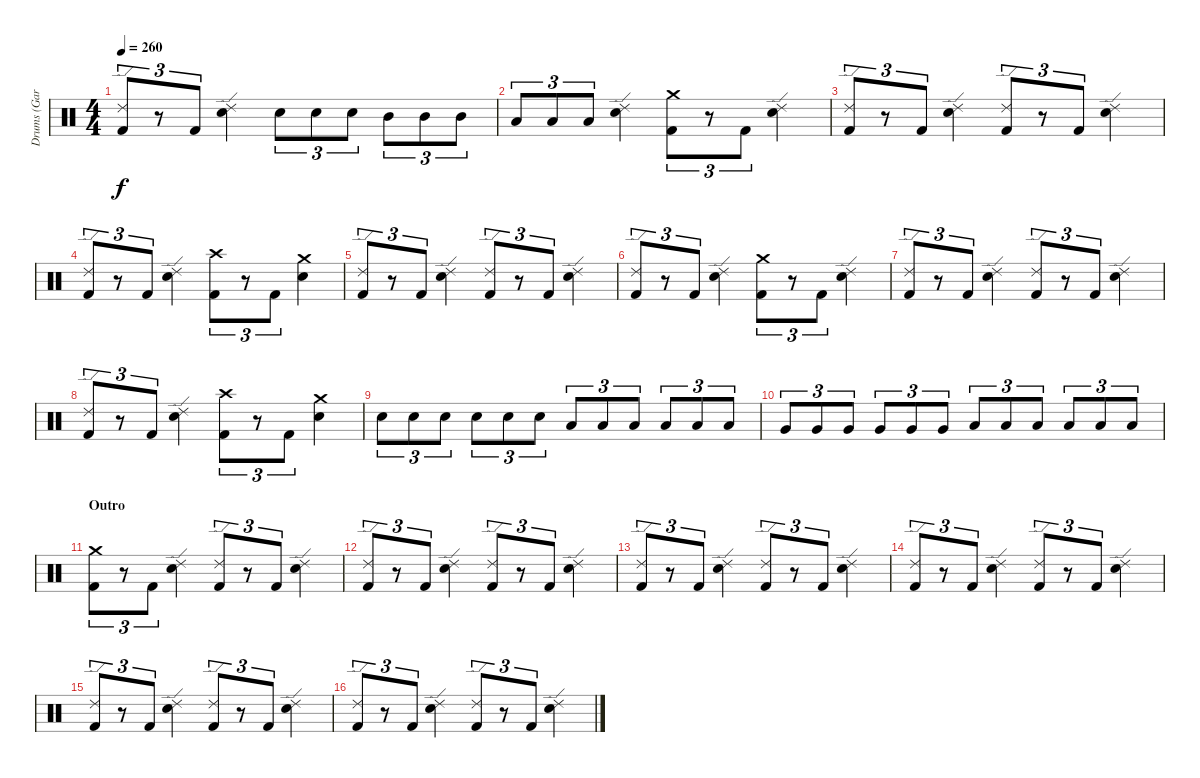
\track ("Drums (Gar Samuelson)" "Drums (Gar") {instrument percussion}
\staff {score}
\articulation defaults
\ts (4 4)
\tempo 260
\clef neutral
\ks c
("Ride (edge) 2" "Kick (hit) 2").8{tu (3 2) dy f} r.8{tu (3 2)} "Kick (hit) 2".8{tu (3 2)} ("Ride (edge) 2" "Snare (hit) 2").4 "Snare (hit) 2".8{tu (3 2)} "Snare (hit) 2".8{tu (3 2)} "Snare (hit) 2".8{tu (3 2)} "Mid Tom (hit)".8{tu (3 2)} "Mid Tom (hit)".8{tu (3 2)} "Mid Tom (hit)".8{tu (3 2)} |
"Low Tom (hit)".8{tu (3 2)} "Low Tom (hit)".8{tu (3 2)} "Low Tom (hit)".8{tu (3 2)} ("Ride (edge) 2" "Snare (hit) 2").4 ("Crash medium (hit)" "Kick (hit) 2").8{tu (3 2)} r.8{tu (3 2)} "Kick (hit) 2".8{tu (3 2)} ("Ride (edge) 2" "Snare (hit) 2").4 |
("Ride (edge) 2" "Kick (hit) 2").8{tu (3 2)} r.8{tu (3 2)} "Kick (hit) 2".8{tu (3 2)} ("Ride (edge) 2" "Snare (hit) 2").4 ("Ride (edge) 2" "Kick (hit) 2").8{tu (3 2)} r.8{tu (3 2)} "Kick (hit) 2".8{tu (3 2)} ("Ride (edge) 2" "Snare (hit) 2").4 |
("Ride (edge) 2" "Kick (hit) 2").8{tu (3 2)} r.8{tu (3 2)} "Kick (hit) 2".8{tu (3 2)} ("Ride (edge) 2" "Snare (hit) 2").4 ("Crash high (hit)" "Kick (hit) 2").8{tu (3 2)} r.8{tu (3 2)} "Kick (hit) 2".8{tu (3 2)} ("Crash medium (hit)" "Snare (hit) 2").4 |
("Ride (edge) 2" "Kick (hit) 2").8{tu (3 2)} r.8{tu (3 2)} "Kick (hit) 2".8{tu (3 2)} ("Ride (edge) 2" "Snare (hit) 2").4 ("Ride (edge) 2" "Kick (hit) 2").8{tu (3 2)} r.8{tu (3 2)} "Kick (hit) 2".8{tu (3 2)} ("Ride (edge) 2" "Snare (hit) 2").4 |
("Ride (edge) 2" "Kick (hit) 2").8{tu (3 2)} r.8{tu (3 2)} "Kick (hit) 2".8{tu (3 2)} ("Ride (edge) 2" "Snare (hit) 2").4 ("Crash medium (hit)" "Kick (hit) 2").8{tu (3 2)} r.8{tu (3 2)} "Kick (hit) 2".8{tu (3 2)} ("Ride (edge) 2" "Snare (hit) 2").4 |
("Ride (edge) 2" "Kick (hit) 2").8{tu (3 2)} r.8{tu (3 2)} "Kick (hit) 2".8{tu (3 2)} ("Ride (edge) 2" "Snare (hit) 2").4 ("Ride (edge) 2" "Kick (hit) 2").8{tu (3 2)} r.8{tu (3 2)} "Kick (hit) 2".8{tu (3 2)} ("Ride (edge) 2" "Snare (hit) 2").4 |
("Ride (edge) 2" "Kick (hit) 2").8{tu (3 2)} r.8{tu (3 2)} "Kick (hit) 2".8{tu (3 2)} ("Ride (edge) 2" "Snare (hit) 2").4 ("Crash high (hit)" "Kick (hit) 2").8{tu (3 2)} r.8{tu (3 2)} "Kick (hit) 2".8{tu (3 2)} ("Crash medium (hit)" "Snare (hit) 2").4 |
"Snare (hit) 2".8{tu (3 2)} "Snare (hit) 2".8{tu (3 2)} "Snare (hit) 2".8{tu (3 2)} "Snare (hit) 2".8{tu (3 2)} "Snare (hit) 2".8{tu (3 2)} "Snare (hit) 2".8{tu (3 2)} "Low Tom (hit)".8{tu (3 2)} "Low Tom (hit)".8{tu (3 2)} "Low Tom (hit)".8{tu (3 2)} "Low Tom (hit)".8{tu (3 2)} "Low Tom (hit)".8{tu (3 2)} "Low Tom (hit)".8{tu (3 2)} |
"Very Low Tom (hit)".8{tu (3 2)} "Very Low Tom (hit)".8{tu (3 2)} "Very Low Tom (hit)".8{tu (3 2)} "Very Low Tom (hit)".8{tu (3 2)} "Very Low Tom (hit)".8{tu (3 2)} "Very Low Tom (hit)".8{tu (3 2)} "Low Floor Tom (hit)".8{tu (3 2)} "Low Floor Tom (hit)".8{tu (3 2)} "Low Floor Tom (hit)".8{tu (3 2)} "Low Floor Tom (hit)".8{tu (3 2)} "Low Floor Tom (hit)".8{tu (3 2)} "Low Floor Tom (hit)".8{tu (3 2)} |
\section ("" "Outro")
("Crash medium (hit)" "Kick (hit) 2").8{tu (3 2)} r.8{tu (3 2)} "Kick (hit) 2".8{tu (3 2)} ("Ride (edge) 2" "Snare (hit) 2").4 ("Ride (edge) 2" "Kick (hit) 2").8{tu (3 2)} r.8{tu (3 2)} "Kick (hit) 2".8{tu (3 2)} ("Ride (edge) 2" "Snare (hit) 2").4 |
("Ride (edge) 2" "Kick (hit) 2").8{tu (3 2)} r.8{tu (3 2)} "Kick (hit) 2".8{tu (3 2)} ("Ride (edge) 2" "Snare (hit) 2").4 ("Ride (edge) 2" "Kick (hit) 2").8{tu (3 2)} r.8{tu (3 2)} "Kick (hit) 2".8{tu (3 2)} ("Ride (edge) 2" "Snare (hit) 2").4 |
("Ride (edge) 2" "Kick (hit) 2").8{tu (3 2)} r.8{tu (3 2)} "Kick (hit) 2".8{tu (3 2)} ("Ride (edge) 2" "Snare (hit) 2").4 ("Ride (edge) 2" "Kick (hit) 2").8{tu (3 2)} r.8{tu (3 2)} "Kick (hit) 2".8{tu (3 2)} ("Ride (edge) 2" "Snare (hit) 2").4 |
("Ride (edge) 2" "Kick (hit) 2").8{tu (3 2)} r.8{tu (3 2)} "Kick (hit) 2".8{tu (3 2)} ("Ride (edge) 2" "Snare (hit) 2").4 ("Ride (edge) 2" "Kick (hit) 2").8{tu (3 2)} r.8{tu (3 2)} "Kick (hit) 2".8{tu (3 2)} ("Ride (edge) 2" "Snare (hit) 2").4 |
("Ride (edge) 2" "Kick (hit) 2").8{tu (3 2)} r.8{tu (3 2)} "Kick (hit) 2".8{tu (3 2)} ("Ride (edge) 2" "Snare (hit) 2").4 ("Ride (edge) 2" "Kick (hit) 2").8{tu (3 2)} r.8{tu (3 2)} "Kick (hit) 2".8{tu (3 2)} ("Ride (edge) 2" "Snare (hit) 2").4 |
("Ride (edge) 2" "Kick (hit) 2").8{tu (3 2)} r.8{tu (3 2)} "Kick (hit) 2".8{tu (3 2)} ("Ride (edge) 2" "Snare (hit) 2").4 ("Ride (edge) 2" "Kick (hit) 2").8{tu (3 2)} r.8{tu (3 2)} "Kick (hit) 2".8{tu (3 2)} ("Ride (edge) 2" "Snare (hit) 2").4
